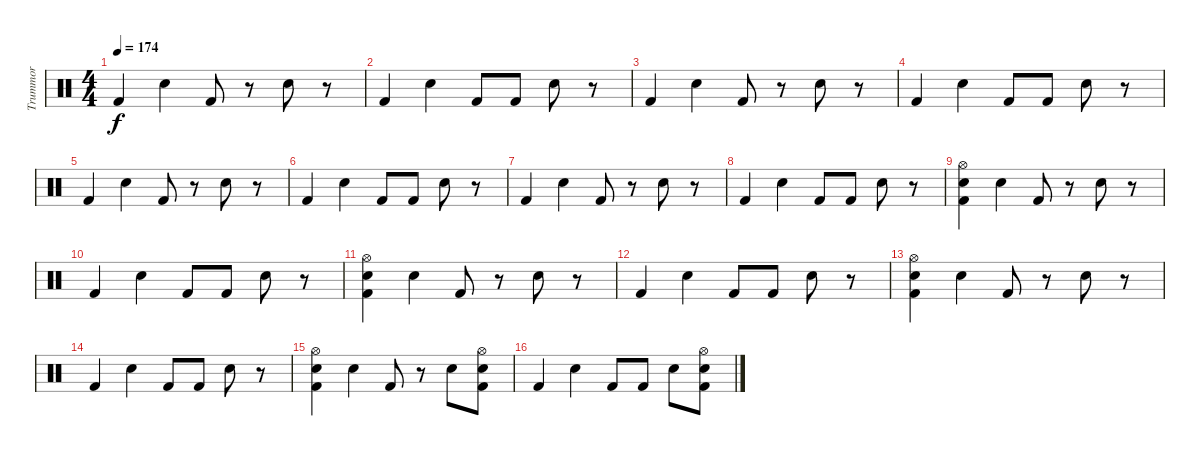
\track ("Trummor" "Trummor") {instrument percussion}
\staff {score}
\articulation defaults
\ts (4 4)
\tempo 174
\clef neutral
\ks c "Kick (hit) 2".4{dy f} "Snare (hit) 2".4 "Kick (hit) 2".8
r.8 "Snare (hit) 2".8 r.8 |
"Kick (hit) 2".4 "Snare (hit) 2".4 "Kick (hit) 2".8 "Kick (hit) 2".8 "Snare (hit) 2".8 r.8 |
"Kick (hit) 2".4 "Snare (hit) 2".4 "Kick (hit) 2".8 r.8 "Snare (hit) 2".8 r.8 |
"Kick (hit) 2".4 "Snare (hit) 2".4 "Kick (hit) 2".8 "Kick (hit) 2".8 "Snare (hit) 2".8 r.8 |
"Kick (hit) 2".4 "Snare (hit) 2".4 "Kick (hit) 2".8 r.8 "Snare (hit) 2".8 r.8 |
"Kick (hit) 2".4 "Snare (hit) 2".4 "Kick (hit) 2".8 "Kick (hit) 2".8 "Snare (hit) 2".8 r.8 |
"Kick (hit) 2".4 "Snare (hit) 2".4 "Kick (hit) 2".8 r.8 "Snare (hit) 2".8 r.8 |
"Kick (hit) 2".4 "Snare (hit) 2".4 "Kick (hit) 2".8 "Kick (hit) 2".8 "Snare (hit) 2".8 r.8 |
("Hi-Hat (open)" "Kick (hit) 2" "Snare (hit) 2").4 "Snare (hit) 2".4 "Kick (hit) 2".8 r.8 "Snare (hit) 2".8 r.8 |
"Kick (hit) 2".4 "Snare (hit) 2".4 "Kick (hit) 2".8 "Kick (hit) 2".8 "Snare (hit) 2".8 r.8 |
("Hi-Hat (open)" "Kick (hit) 2" "Snare (hit) 2").4 "Snare (hit) 2".4 "Kick (hit) 2".8 r.8 "Snare (hit) 2".8 r.8 |
"Kick (hit) 2".4 "Snare (hit) 2".4 "Kick (hit) 2".8 "Kick (hit) 2".8 "Snare (hit) 2".8 r.8 |
("Hi-Hat (open)" "Kick (hit) 2" "Snare (hit) 2").4 "Snare (hit) 2".4 "Kick (hit) 2".8 r.8 "Snare (hit) 2".8 r.8 |
"Kick (hit) 2".4 "Snare (hit) 2".4 "Kick (hit) 2".8 "Kick (hit) 2".8 "Snare (hit) 2".8 r.8 |
("Hi-Hat (open)" "Kick (hit) 2" "Snare (hit) 2").4 "Snare (hit) 2".4 "Kick (hit) 2".8 r.8 "Snare (hit) 2".8 ("Hi-Hat (open)" "Kick (hit) 2" "Snare (hit) 2").8 |
"Kick (hit) 2".4 "Snare (hit) 2".4 "Kick (hit) 2".8 "Kick (hit) 2".8 "Snare (hit) 2".8 ("Hi-Hat (open)" "Kick (hit) 2" "Snare (hit) 2").8
